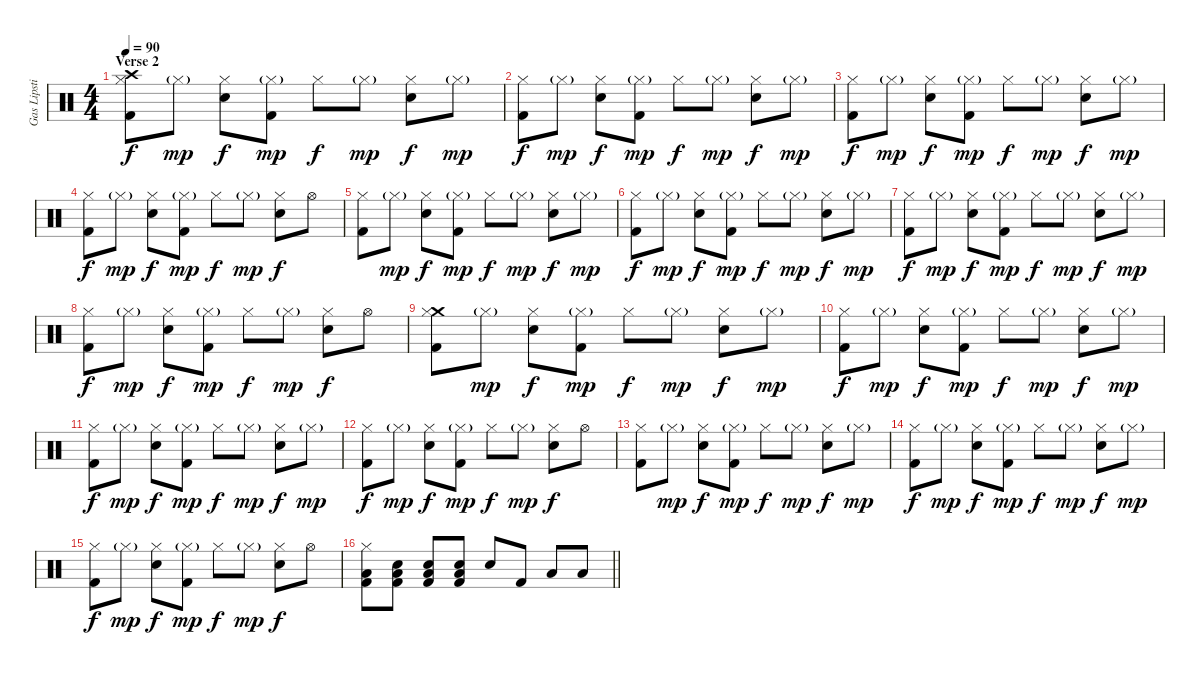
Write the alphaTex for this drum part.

\track ("Gas Lipstick (Drums)" "Gas Lipsti") {instrument percussion}
\staff {score}
\articulation defaults
\ts (4 4)
\section ("" "Verse 2")
\tempo 90
\clef neutral
\ks c
("Crash high (hit)" "Hi-Hat (closed)" "Kick (hit) 2").8{dy f} "Hi-Hat (closed)"{g}.8{dy mp} ("Hi-Hat (closed)" "Snare (hit) 2").8{dy f} ("Hi-Hat (closed)"{g} "Kick (hit) 2").8{dy mp} "Hi-Hat (closed)".8{dy f} "Hi-Hat (closed)"{g}.8{dy mp} ("Hi-Hat (closed)" "Snare (hit) 2").8{dy f} "Hi-Hat (closed)"{g}.8{dy mp} |
("Hi-Hat (closed)" "Kick (hit) 2").8{dy f} "Hi-Hat (closed)"{g}.8{dy mp} ("Hi-Hat (closed)" "Snare (hit) 2").8{dy f} ("Hi-Hat (closed)"{g} "Kick (hit) 2").8{dy mp} "Hi-Hat (closed)".8{dy f} "Hi-Hat (closed)"{g}.8{dy mp} ("Hi-Hat (closed)" "Snare (hit) 2").8{dy f} "Hi-Hat (closed)"{g}.8{dy mp} |
("Hi-Hat (closed)" "Kick (hit) 2").8{dy f} "Hi-Hat (closed)"{g}.8{dy mp} ("Hi-Hat (closed)" "Snare (hit) 2").8{dy f} ("Hi-Hat (closed)"{g} "Kick (hit) 2").8{dy mp} "Hi-Hat (closed)".8{dy f} "Hi-Hat (closed)"{g}.8{dy mp} ("Hi-Hat (closed)" "Snare (hit) 2").8{dy f} "Hi-Hat (closed)"{g}.8{dy mp} |
("Hi-Hat (closed)" "Kick (hit) 2").8{dy f} "Hi-Hat (closed)"{g}.8{dy mp} ("Hi-Hat (closed)" "Snare (hit) 2").8{dy f} ("Hi-Hat (closed)"{g} "Kick (hit) 2").8{dy mp} "Hi-Hat (closed)".8{dy f} "Hi-Hat (closed)"{g}.8{dy mp} ("Hi-Hat (closed)" "Snare (hit) 2").8{dy f} "Hi-Hat (open)".8 |
("Hi-Hat (closed)" "Kick (hit) 2").8 "Hi-Hat (closed)"{g}.8{dy mp} ("Hi-Hat (closed)" "Snare (hit) 2").8{dy f} ("Hi-Hat (closed)"{g} "Kick (hit) 2").8{dy mp} "Hi-Hat (closed)".8{dy f} "Hi-Hat (closed)"{g}.8{dy mp} ("Hi-Hat (closed)" "Snare (hit) 2").8{dy f} "Hi-Hat (closed)"{g}.8{dy mp} |
("Hi-Hat (closed)" "Kick (hit) 2").8{dy f} "Hi-Hat (closed)"{g}.8{dy mp} ("Hi-Hat (closed)" "Snare (hit) 2").8{dy f} ("Hi-Hat (closed)"{g} "Kick (hit) 2").8{dy mp} "Hi-Hat (closed)".8{dy f} "Hi-Hat (closed)"{g}.8{dy mp} ("Hi-Hat (closed)" "Snare (hit) 2").8{dy f} "Hi-Hat (closed)"{g}.8{dy mp} |
("Hi-Hat (closed)" "Kick (hit) 2").8{dy f} "Hi-Hat (closed)"{g}.8{dy mp} ("Hi-Hat (closed)" "Snare (hit) 2").8{dy f} ("Hi-Hat (closed)"{g} "Kick (hit) 2").8{dy mp} "Hi-Hat (closed)".8{dy f} "Hi-Hat (closed)"{g}.8{dy mp} ("Hi-Hat (closed)" "Snare (hit) 2").8{dy f} "Hi-Hat (closed)"{g}.8{dy mp} |
("Hi-Hat (closed)" "Kick (hit) 2").8{dy f} "Hi-Hat (closed)"{g}.8{dy mp} ("Hi-Hat (closed)" "Snare (hit) 2").8{dy f} ("Hi-Hat (closed)"{g} "Kick (hit) 2").8{dy mp} "Hi-Hat (closed)".8{dy f} "Hi-Hat (closed)"{g}.8{dy mp} ("Hi-Hat (closed)" "Snare (hit) 2").8{dy f} "Hi-Hat (open)".8 |
("Crash medium (hit)" "Hi-Hat (closed)" "Kick (hit) 2").8 "Hi-Hat (closed)"{g}.8{dy mp} ("Hi-Hat (closed)" "Snare (hit) 2").8{dy f} ("Hi-Hat (closed)"{g} "Kick (hit) 2").8{dy mp} "Hi-Hat (closed)".8{dy f} "Hi-Hat (closed)"{g}.8{dy mp} ("Hi-Hat (closed)" "Snare (hit) 2").8{dy f} "Hi-Hat (closed)"{g}.8{dy mp} |
("Hi-Hat (closed)" "Kick (hit) 2").8{dy f} "Hi-Hat (closed)"{g}.8{dy mp} ("Hi-Hat (closed)" "Snare (hit) 2").8{dy f} ("Hi-Hat (closed)"{g} "Kick (hit) 2").8{dy mp} "Hi-Hat (closed)".8{dy f} "Hi-Hat (closed)"{g}.8{dy mp} ("Hi-Hat (closed)" "Snare (hit) 2").8{dy f} "Hi-Hat (closed)"{g}.8{dy mp} |
("Hi-Hat (closed)" "Kick (hit) 2").8{dy f} "Hi-Hat (closed)"{g}.8{dy mp} ("Hi-Hat (closed)" "Snare (hit) 2").8{dy f} ("Hi-Hat (closed)"{g} "Kick (hit) 2").8{dy mp} "Hi-Hat (closed)".8{dy f} "Hi-Hat (closed)"{g}.8{dy mp} ("Hi-Hat (closed)" "Snare (hit) 2").8{dy f} "Hi-Hat (closed)"{g}.8{dy mp} |
("Hi-Hat (closed)" "Kick (hit) 2").8{dy f} "Hi-Hat (closed)"{g}.8{dy mp} ("Hi-Hat (closed)" "Snare (hit) 2").8{dy f} ("Hi-Hat (closed)"{g} "Kick (hit) 2").8{dy mp} "Hi-Hat (closed)".8{dy f} "Hi-Hat (closed)"{g}.8{dy mp} ("Hi-Hat (closed)" "Snare (hit) 2").8{dy f} "Hi-Hat (open)".8 |
("Hi-Hat (closed)" "Kick (hit) 2").8 "Hi-Hat (closed)"{g}.8{dy mp} ("Hi-Hat (closed)" "Snare (hit) 2").8{dy f} ("Hi-Hat (closed)"{g} "Kick (hit) 2").8{dy mp} "Hi-Hat (closed)".8{dy f} "Hi-Hat (closed)"{g}.8{dy mp} ("Hi-Hat (closed)" "Snare (hit) 2").8{dy f} "Hi-Hat (closed)"{g}.8{dy mp} |
("Hi-Hat (closed)" "Kick (hit) 2").8{dy f} "Hi-Hat (closed)"{g}.8{dy mp} ("Hi-Hat (closed)" "Snare (hit) 2").8{dy f} ("Hi-Hat (closed)"{g} "Kick (hit) 2").8{dy mp} "Hi-Hat (closed)".8{dy f} "Hi-Hat (closed)"{g}.8{dy mp} ("Hi-Hat (closed)" "Snare (hit) 2").8{dy f} "Hi-Hat (closed)"{g}.8{dy mp} |
("Hi-Hat (closed)" "Kick (hit) 2").8{dy f} "Hi-Hat (closed)"{g}.8{dy mp} ("Hi-Hat (closed)" "Snare (hit) 2").8{dy f} ("Hi-Hat (closed)"{g} "Kick (hit) 2").8{dy mp} "Hi-Hat (closed)".8{dy f} "Hi-Hat (closed)"{g}.8{dy mp} ("Hi-Hat (closed)" "Snare (hit) 2").8{dy f} "Hi-Hat (open)".8 |
\barLineRight lightlight
("Hi-Hat (closed)" "Low Floor Tom (hit)" "Kick (hit) 2").8 ("Low Floor Tom (hit)" "Snare (hit) 2" "Kick (hit) 2").8 ("Low Floor Tom (hit)" "Snare (hit) 2" "Kick (hit) 2").8 ("Low Floor Tom (hit)" "Snare (hit) 2" "Kick (hit) 2").8 "Snare (hit) 2".8 "Kick (hit) 2".8 "Low Tom (hit)".8 "Low Floor Tom (hit)".8
